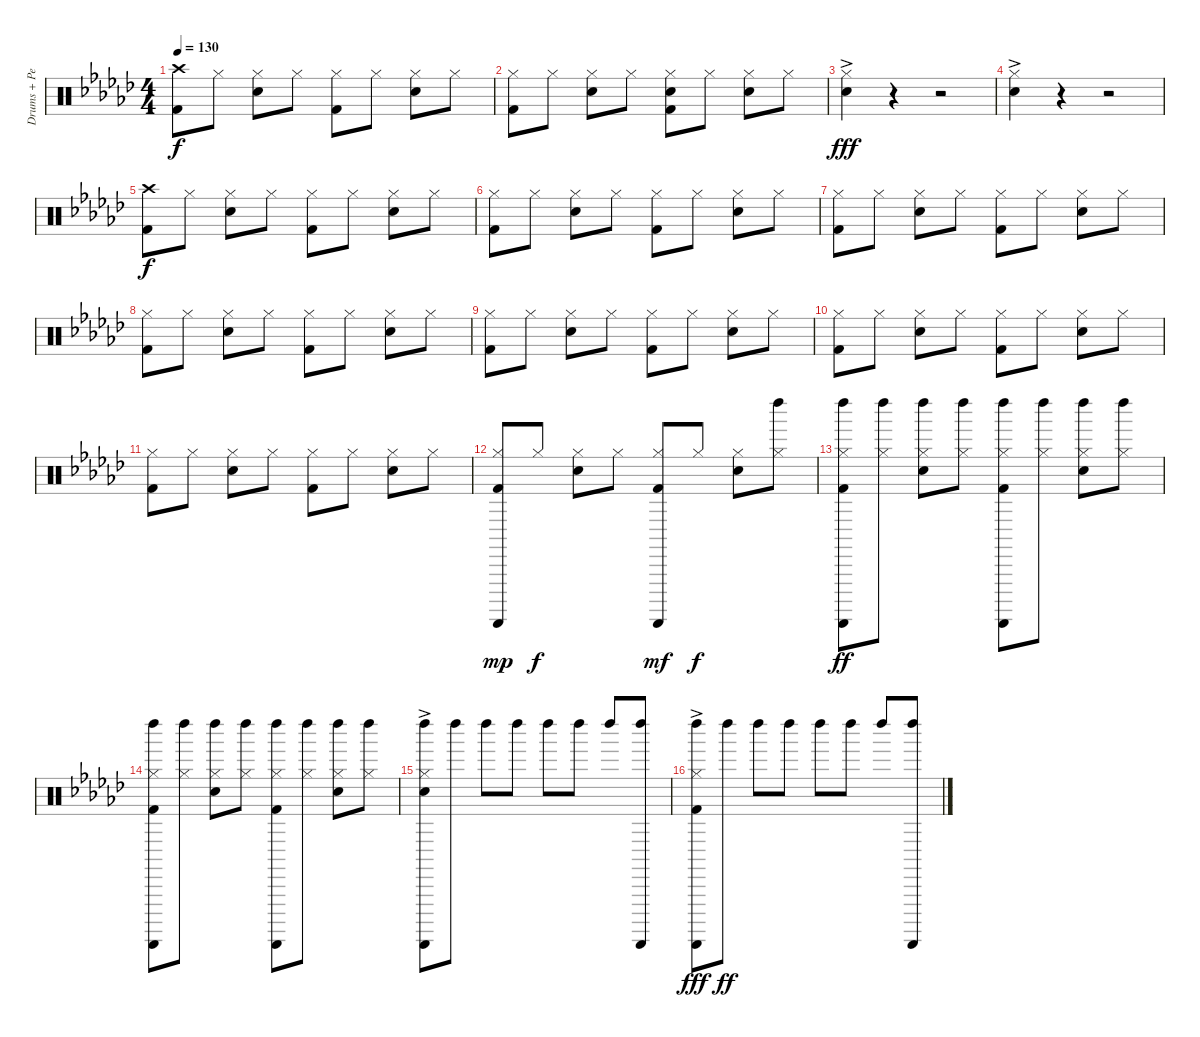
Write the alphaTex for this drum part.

\track ("Drums + Percussions" "Drums + Pe") {instrument percussion}
\staff {score}
\articulation defaults
\ts (4 4)
\tempo 130
\clef neutral
\ks gb
("Crash high (hit)" "Kick (hit) 2").8{dy f} "Hi-Hat (closed)".8 ("Hi-Hat (closed)" "Electric Snare (hit)").8 "Hi-Hat (closed)".8 ("Hi-Hat (closed)" "Kick (hit) 2").8 "Hi-Hat (closed)".8 ("Hi-Hat (closed)" "Electric Snare (hit)").8 "Hi-Hat (closed)".8 |
("Hi-Hat (closed)" "Kick (hit) 2").8 "Hi-Hat (closed)".8 ("Hi-Hat (closed)" "Electric Snare (hit)").8 "Hi-Hat (closed)".8 ("Hi-Hat (closed)" "Electric Snare (hit)" "Kick (hit) 2").8 "Hi-Hat (closed)".8 ("Hi-Hat (closed)" "Electric Snare (hit)").8 "Hi-Hat (closed)".8 |
("Hi-Hat (closed)"{ac} "Electric Snare (hit)"{ac}).4{dy fff} r.4 r.2 |
("Hi-Hat (closed)"{ac} "Electric Snare (hit)"{ac}).4 r.4 r.2 |
("Crash high (hit)" "Kick (hit) 2").8{dy f} "Hi-Hat (closed)".8 ("Hi-Hat (closed)" "Electric Snare (hit)").8 "Hi-Hat (closed)".8 ("Hi-Hat (closed)" "Kick (hit) 2").8 "Hi-Hat (closed)".8 ("Hi-Hat (closed)" "Electric Snare (hit)").8 "Hi-Hat (closed)".8 |
("Hi-Hat (closed)" "Kick (hit) 2").8 "Hi-Hat (closed)".8 ("Hi-Hat (closed)" "Electric Snare (hit)").8 "Hi-Hat (closed)".8 ("Hi-Hat (closed)" "Kick (hit) 2").8 "Hi-Hat (closed)".8 ("Hi-Hat (closed)" "Electric Snare (hit)").8 "Hi-Hat (closed)".8 |
("Hi-Hat (closed)" "Kick (hit) 2").8 "Hi-Hat (closed)".8 ("Hi-Hat (closed)" "Electric Snare (hit)").8 "Hi-Hat (closed)".8 ("Hi-Hat (closed)" "Kick (hit) 2").8 "Hi-Hat (closed)".8 ("Hi-Hat (closed)" "Electric Snare (hit)").8 "Hi-Hat (closed)".8 |
("Hi-Hat (closed)" "Kick (hit) 2").8 "Hi-Hat (closed)".8 ("Hi-Hat (closed)" "Electric Snare (hit)").8 "Hi-Hat (closed)".8 ("Hi-Hat (closed)" "Kick (hit) 2").8 "Hi-Hat (closed)".8 ("Hi-Hat (closed)" "Electric Snare (hit)").8 "Hi-Hat (closed)".8 |
("Hi-Hat (closed)" "Kick (hit) 2").8 "Hi-Hat (closed)".8 ("Hi-Hat (closed)" "Electric Snare (hit)").8 "Hi-Hat (closed)".8 ("Hi-Hat (closed)" "Kick (hit) 2").8 "Hi-Hat (closed)".8 ("Hi-Hat (closed)" "Electric Snare (hit)").8 "Hi-Hat (closed)".8 |
("Hi-Hat (closed)" "Kick (hit) 2").8 "Hi-Hat (closed)".8 ("Hi-Hat (closed)" "Electric Snare (hit)").8 "Hi-Hat (closed)".8 ("Hi-Hat (closed)" "Kick (hit) 2").8 "Hi-Hat (closed)".8 ("Hi-Hat (closed)" "Electric Snare (hit)").8 "Hi-Hat (closed)".8 |
("Hi-Hat (closed)" "Kick (hit) 2").8 "Hi-Hat (closed)".8 ("Hi-Hat (closed)" "Electric Snare (hit)").8 "Hi-Hat (closed)".8 ("Hi-Hat (closed)" "Kick (hit) 2").8 "Hi-Hat (closed)".8 ("Hi-Hat (closed)" "Electric Snare (hit)").8 "Hi-Hat (closed)".8 |
("Hi-Hat (closed)" "Guiro (scrap-return)" "Kick (hit) 2").8{dy mp} "Hi-Hat (closed)".8{dy f} ("Hi-Hat (closed)" "Electric Snare (hit)").8 "Hi-Hat (closed)".8 ("Hi-Hat (closed)" "Guiro (scrap-return)" "Kick (hit) 2").8{dy mf} "Hi-Hat (closed)".8{dy f} ("Hi-Hat (closed)" "Electric Snare (hit)").8 ("Hi-Hat (closed)" "Left Maraca (hit)").8 |
("Hi-Hat (closed)" "Left Maraca (hit)" "Guiro (scrap-return)" "Kick (hit) 2").8{dy ff} ("Hi-Hat (closed)" "Left Maraca (hit)").8 ("Hi-Hat (closed)" "Left Maraca (hit)" "Electric Snare (hit)").8 ("Hi-Hat (closed)" "Left Maraca (hit)").8 ("Hi-Hat (closed)" "Left Maraca (hit)" "Guiro (scrap-return)" "Kick (hit) 2").8 ("Hi-Hat (closed)" "Left Maraca (hit)").8 ("Hi-Hat (closed)" "Left Maraca (hit)" "Electric Snare (hit)").8 ("Hi-Hat (closed)" "Left Maraca (hit)").8 |
("Hi-Hat (closed)" "Left Maraca (hit)" "Guiro (scrap-return)" "Kick (hit) 2").8 ("Hi-Hat (closed)" "Left Maraca (hit)").8 ("Hi-Hat (closed)" "Left Maraca (hit)" "Electric Snare (hit)").8 ("Hi-Hat (closed)" "Left Maraca (hit)").8 ("Hi-Hat (closed)" "Left Maraca (hit)" "Guiro (scrap-return)" "Kick (hit) 2").8 ("Hi-Hat (closed)" "Left Maraca (hit)").8 ("Hi-Hat (closed)" "Left Maraca (hit)" "Electric Snare (hit)").8 ("Hi-Hat (closed)" "Left Maraca (hit)").8 |
("Hi-Hat (closed)"{ac} "Left Maraca (hit)" "Electric Snare (hit)"{ac} "Guiro (scrap-return)").8 "Left Maraca (hit)".8 "Left Maraca (hit)".8 "Left Maraca (hit)".8 "Left Maraca (hit)".8 "Left Maraca (hit)".8 "Left Maraca (hit)".8 ("Left Maraca (hit)" "Guiro (scrap-return)").8 |
("Hi-Hat (closed)"{ac} "Left Maraca (hit)" "Guiro (scrap-return)" "Kick (hit) 2"{ac}).8{dy fff} "Left Maraca (hit)".8{dy ff} "Left Maraca (hit)".8 "Left Maraca (hit)".8 "Left Maraca (hit)".8 "Left Maraca (hit)".8 "Left Maraca (hit)".8 ("Left Maraca (hit)" "Guiro (scrap-return)").8
